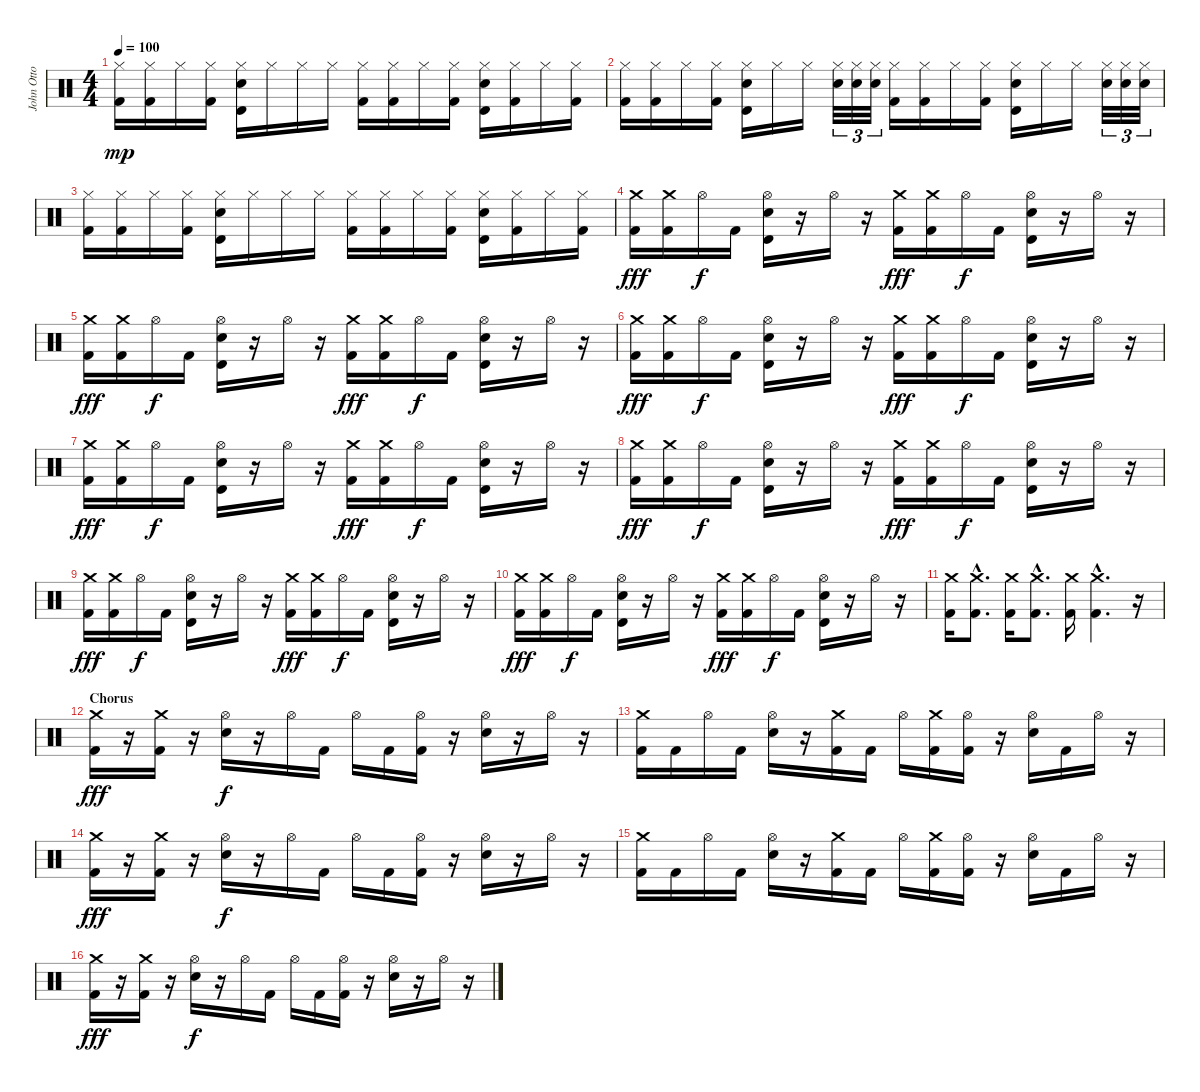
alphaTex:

\track ("John Otto - Drums" "John Otto ") {instrument percussion}
\staff {score}
\articulation defaults
\ts (4 4)
\tempo 100
\clef neutral
\ks c
("Hi-Hat (closed)" "Kick (hit) 2").16{dy mp} ("Hi-Hat (closed)" "Kick (hit) 2").16 "Hi-Hat (closed)".16 ("Hi-Hat (closed)" "Kick (hit) 2").16 ("Hi-Hat (closed)" "Timbale high (hit)" "Electric Snare (hit)").16 "Hi-Hat (closed)".16 "Hi-Hat (closed)".16 "Hi-Hat (closed)".16 ("Hi-Hat (closed)" "Kick (hit) 2").16 ("Hi-Hat (closed)" "Kick (hit) 2").16 "Hi-Hat (closed)".16 ("Hi-Hat (closed)" "Kick (hit) 2").16 ("Hi-Hat (closed)" "Timbale high (hit)" "Electric Snare (hit)").16 ("Hi-Hat (closed)" "Kick (hit) 2").16 "Hi-Hat (closed)".16 ("Hi-Hat (closed)" "Kick (hit) 2").16 |
("Hi-Hat (closed)" "Kick (hit) 2").16 ("Hi-Hat (closed)" "Kick (hit) 2").16 "Hi-Hat (closed)".16 ("Hi-Hat (closed)" "Kick (hit) 2").16 ("Hi-Hat (closed)" "Timbale high (hit)" "Electric Snare (hit)").16 "Hi-Hat (closed)".16 "Hi-Hat (closed)".16 ("Hi-Hat (closed)" "Electric Snare (hit)").32{tu (3 2)} ("Hi-Hat (closed)" "Electric Snare (hit)").32{tu (3 2)} ("Hi-Hat (closed)" "Electric Snare (hit)").32{tu (3 2)} ("Hi-Hat (closed)" "Kick (hit) 2").16 ("Hi-Hat (closed)" "Kick (hit) 2").16 "Hi-Hat (closed)".16 ("Hi-Hat (closed)" "Kick (hit) 2").16 ("Hi-Hat (closed)" "Timbale high (hit)" "Electric Snare (hit)").16 "Hi-Hat (closed)".16 "Hi-Hat (closed)".16 ("Hi-Hat (closed)" "Electric Snare (hit)").32{tu (3 2)} ("Hi-Hat (closed)" "Electric Snare (hit)").32{tu (3 2)} ("Hi-Hat (closed)" "Electric Snare (hit)").32{tu (3 2)} |
("Hi-Hat (closed)" "Kick (hit) 2").16 ("Hi-Hat (closed)" "Kick (hit) 2").16 "Hi-Hat (closed)".16 ("Hi-Hat (closed)" "Kick (hit) 2").16 ("Hi-Hat (closed)" "Timbale high (hit)" "Electric Snare (hit)").16 "Hi-Hat (closed)".16 "Hi-Hat (closed)".16 "Hi-Hat (closed)".16 ("Hi-Hat (closed)" "Kick (hit) 2").16 ("Hi-Hat (closed)" "Kick (hit) 2").16 "Hi-Hat (closed)".16 ("Hi-Hat (closed)" "Kick (hit) 2").16 ("Hi-Hat (closed)" "Timbale high (hit)" "Electric Snare (hit)").16 ("Hi-Hat (closed)" "Kick (hit) 2").16 "Hi-Hat (closed)".16 ("Hi-Hat (closed)" "Kick (hit) 2").16 |
("Crash medium (hit)" "Kick (hit) 2").16{dy fff} ("Crash medium (hit)" "Kick (hit) 2").16 "Hi-Hat (open)".16{dy f} "Kick (hit) 2".16 ("Hi-Hat (open)" "Timbale high (hit)" "Electric Snare (hit)").16 r.16 "Hi-Hat (open)".16 r.16 ("Crash medium (hit)" "Kick (hit) 2").16{dy fff} ("Crash medium (hit)" "Kick (hit) 2").16 "Hi-Hat (open)".16{dy f} "Kick (hit) 2".16 ("Hi-Hat (open)" "Timbale high (hit)" "Electric Snare (hit)").16 r.16 "Hi-Hat (open)".16 r.16 |
("Crash medium (hit)" "Kick (hit) 2").16{dy fff} ("Crash medium (hit)" "Kick (hit) 2").16 "Hi-Hat (open)".16{dy f} "Kick (hit) 2".16 ("Hi-Hat (open)" "Timbale high (hit)" "Electric Snare (hit)").16 r.16 "Hi-Hat (open)".16 r.16 ("Crash medium (hit)" "Kick (hit) 2").16{dy fff} ("Crash medium (hit)" "Kick (hit) 2").16 "Hi-Hat (open)".16{dy f} "Kick (hit) 2".16 ("Hi-Hat (open)" "Timbale high (hit)" "Electric Snare (hit)").16 r.16 "Hi-Hat (open)".16 r.16 |
("Crash medium (hit)" "Kick (hit) 2").16{dy fff} ("Crash medium (hit)" "Kick (hit) 2").16 "Hi-Hat (open)".16{dy f} "Kick (hit) 2".16 ("Hi-Hat (open)" "Timbale high (hit)" "Electric Snare (hit)").16 r.16 "Hi-Hat (open)".16 r.16 ("Crash medium (hit)" "Kick (hit) 2").16{dy fff} ("Crash medium (hit)" "Kick (hit) 2").16 "Hi-Hat (open)".16{dy f} "Kick (hit) 2".16 ("Hi-Hat (open)" "Timbale high (hit)" "Electric Snare (hit)").16 r.16 "Hi-Hat (open)".16 r.16 |
("Crash medium (hit)" "Kick (hit) 2").16{dy fff} ("Crash medium (hit)" "Kick (hit) 2").16 "Hi-Hat (open)".16{dy f} "Kick (hit) 2".16 ("Hi-Hat (open)" "Timbale high (hit)" "Electric Snare (hit)").16 r.16 "Hi-Hat (open)".16 r.16 ("Crash medium (hit)" "Kick (hit) 2").16{dy fff} ("Crash medium (hit)" "Kick (hit) 2").16 "Hi-Hat (open)".16{dy f} "Kick (hit) 2".16 ("Hi-Hat (open)" "Timbale high (hit)" "Electric Snare (hit)").16 r.16 "Hi-Hat (open)".16 r.16 |
("Crash medium (hit)" "Kick (hit) 2").16{dy fff} ("Crash medium (hit)" "Kick (hit) 2").16 "Hi-Hat (open)".16{dy f} "Kick (hit) 2".16 ("Hi-Hat (open)" "Timbale high (hit)" "Electric Snare (hit)").16 r.16 "Hi-Hat (open)".16 r.16 ("Crash medium (hit)" "Kick (hit) 2").16{dy fff} ("Crash medium (hit)" "Kick (hit) 2").16 "Hi-Hat (open)".16{dy f} "Kick (hit) 2".16 ("Hi-Hat (open)" "Timbale high (hit)" "Electric Snare (hit)").16 r.16 "Hi-Hat (open)".16 r.16 |
("Crash medium (hit)" "Kick (hit) 2").16{dy fff} ("Crash medium (hit)" "Kick (hit) 2").16 "Hi-Hat (open)".16{dy f} "Kick (hit) 2".16 ("Hi-Hat (open)" "Timbale high (hit)" "Electric Snare (hit)").16 r.16 "Hi-Hat (open)".16 r.16 ("Crash medium (hit)" "Kick (hit) 2").16{dy fff} ("Crash medium (hit)" "Kick (hit) 2").16 "Hi-Hat (open)".16{dy f} "Kick (hit) 2".16 ("Hi-Hat (open)" "Timbale high (hit)" "Electric Snare (hit)").16 r.16 "Hi-Hat (open)".16 r.16 |
("Crash medium (hit)" "Kick (hit) 2").16{dy fff} ("Crash medium (hit)" "Kick (hit) 2").16 "Hi-Hat (open)".16{dy f} "Kick (hit) 2".16 ("Hi-Hat (open)" "Timbale high (hit)" "Electric Snare (hit)").16 r.16 "Hi-Hat (open)".16 r.16 ("Crash medium (hit)" "Kick (hit) 2").16{dy fff} ("Crash medium (hit)" "Kick (hit) 2").16 "Hi-Hat (open)".16{dy f} "Kick (hit) 2".16 ("Hi-Hat (open)" "Timbale high (hit)" "Electric Snare (hit)").16 r.16 "Hi-Hat (open)".16 r.16 |
("Crash medium (hit)" "Kick (hit) 2").16 ("Crash medium (hit)"{hac} "Kick (hit) 2"{hac}).8{d} ("Crash medium (hit)" "Kick (hit) 2").16 ("Crash medium (hit)"{hac} "Kick (hit) 2"{hac}).8{d} ("Crash medium (hit)" "Kick (hit) 2").16 ("Crash medium (hit)"{hac} "Kick (hit) 2"{hac}).4{d} r.16 |
\section ("" "Chorus")
("Crash medium (hit)" "Kick (hit) 2").16{dy fff} r.16 ("Crash medium (hit)" "Kick (hit) 2").16 r.16 ("Hi-Hat (open)" "Electric Snare (hit)").16{dy f} r.16 "Hi-Hat (open)".16 "Kick (hit) 2".16 "Hi-Hat (open)".16 "Kick (hit) 2".16 ("Hi-Hat (open)" "Kick (hit) 2").16 r.16 ("Hi-Hat (open)" "Electric Snare (hit)").16 r.16 "Hi-Hat (open)".16 r.16 |
("Crash medium (hit)" "Kick (hit) 2").16 "Kick (hit) 2".16 "Hi-Hat (open)".16 "Kick (hit) 2".16 ("Hi-Hat (open)" "Electric Snare (hit)").16 r.16 ("Crash medium (hit)" "Kick (hit) 2").16 "Kick (hit) 2".16 "Hi-Hat (open)".16 ("Crash medium (hit)" "Kick (hit) 2").16 ("Hi-Hat (open)" "Kick (hit) 2").16 r.16 ("Hi-Hat (open)" "Electric Snare (hit)").16 "Kick (hit) 2".16 "Hi-Hat (open)".16 r.16 |
("Crash medium (hit)" "Kick (hit) 2").16{dy fff} r.16 ("Crash medium (hit)" "Kick (hit) 2").16 r.16 ("Hi-Hat (open)" "Electric Snare (hit)").16{dy f} r.16 "Hi-Hat (open)".16 "Kick (hit) 2".16 "Hi-Hat (open)".16 "Kick (hit) 2".16 ("Hi-Hat (open)" "Kick (hit) 2").16 r.16 ("Hi-Hat (open)" "Electric Snare (hit)").16 r.16 "Hi-Hat (open)".16 r.16 |
("Crash medium (hit)" "Kick (hit) 2").16 "Kick (hit) 2".16 "Hi-Hat (open)".16 "Kick (hit) 2".16 ("Hi-Hat (open)" "Electric Snare (hit)").16 r.16 ("Crash medium (hit)" "Kick (hit) 2").16 "Kick (hit) 2".16 "Hi-Hat (open)".16 ("Crash medium (hit)" "Kick (hit) 2").16 ("Hi-Hat (open)" "Kick (hit) 2").16 r.16 ("Hi-Hat (open)" "Electric Snare (hit)").16 "Kick (hit) 2".16 "Hi-Hat (open)".16 r.16 |
("Crash medium (hit)" "Kick (hit) 2").16{dy fff} r.16 ("Crash medium (hit)" "Kick (hit) 2").16 r.16 ("Hi-Hat (open)" "Electric Snare (hit)").16{dy f} r.16 "Hi-Hat (open)".16 "Kick (hit) 2".16 "Hi-Hat (open)".16 "Kick (hit) 2".16 ("Hi-Hat (open)" "Kick (hit) 2").16 r.16 ("Hi-Hat (open)" "Electric Snare (hit)").16 r.16 "Hi-Hat (open)".16 r.16
